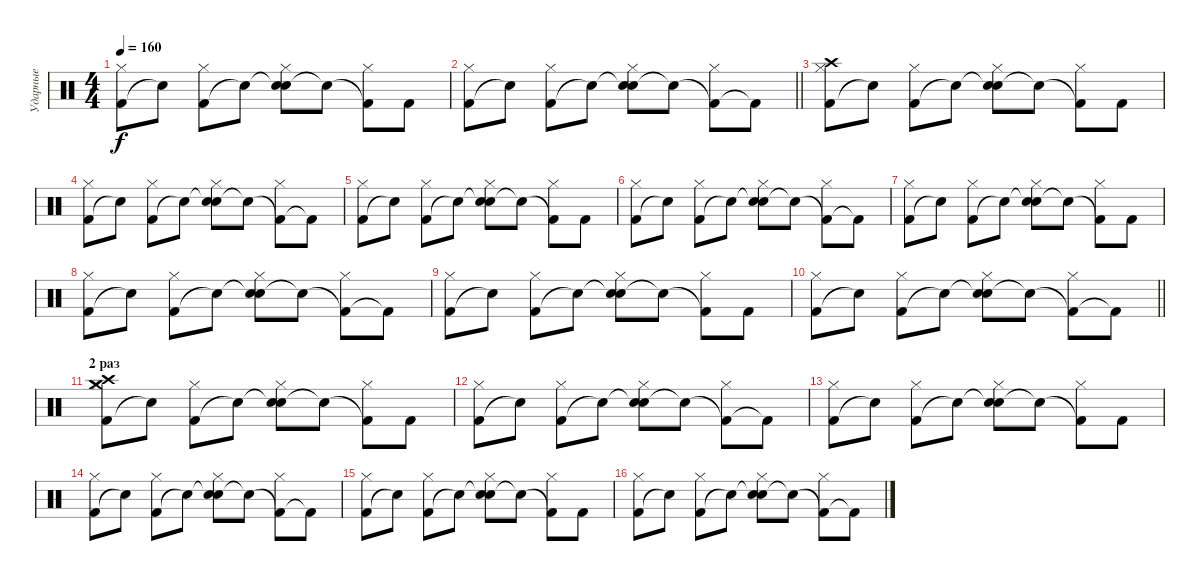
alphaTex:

\track ("Ударные" "Ударные") {instrument percussion}
\staff {score}
\articulation defaults
\ts (4 4)
\tempo 160
\clef neutral
\ks c
("Kick (hit) 2" "Hi-Hat (closed)").8{dy f} "Snare (hit)"{t}.8 ("Kick (hit) 2" "Hi-Hat (closed)").8 "Snare (hit)"{t}.8 ("Snare (hit)"{t} "Hi-Hat (closed)" "Snare (hit) 2").8 "Snare (hit)"{t}.8 ("Kick (hit) 2"{t} "Hi-Hat (closed)").8 "Kick (hit) 2".8 |
\barLineRight lightlight
("Kick (hit) 2" "Hi-Hat (closed)").8 "Snare (hit)"{t}.8 ("Kick (hit) 2" "Hi-Hat (closed)").8 "Snare (hit)"{t}.8 ("Snare (hit)"{t} "Hi-Hat (closed)" "Snare (hit) 2").8 "Snare (hit)"{t}.8 ("Kick (hit) 2"{t} "Hi-Hat (closed)").8 "Kick (hit) 2"{t}.8 |
("Kick (hit) 2" "Hi-Hat (closed)" "Crash high (hit)").8 "Snare (hit)"{t}.8 ("Kick (hit) 2" "Hi-Hat (closed)").8 "Snare (hit)"{t}.8 ("Snare (hit)"{t} "Hi-Hat (closed)" "Snare (hit) 2").8 "Snare (hit)"{t}.8 ("Kick (hit) 2"{t} "Hi-Hat (closed)").8 "Kick (hit) 2".8 |
("Kick (hit) 2" "Hi-Hat (closed)").8 "Snare (hit)"{t}.8 ("Kick (hit) 2" "Hi-Hat (closed)").8 "Snare (hit)"{t}.8 ("Snare (hit)"{t} "Hi-Hat (closed)" "Snare (hit) 2").8 "Snare (hit)"{t}.8 ("Kick (hit) 2"{t} "Hi-Hat (closed)").8 "Kick (hit) 2"{t}.8 |
("Kick (hit) 2" "Hi-Hat (closed)").8 "Snare (hit)"{t}.8 ("Kick (hit) 2" "Hi-Hat (closed)").8 "Snare (hit)"{t}.8 ("Snare (hit)"{t} "Hi-Hat (closed)" "Snare (hit) 2").8 "Snare (hit)"{t}.8 ("Kick (hit) 2"{t} "Hi-Hat (closed)").8 "Kick (hit) 2".8 |
("Kick (hit) 2" "Hi-Hat (closed)").8 "Snare (hit)"{t}.8 ("Kick (hit) 2" "Hi-Hat (closed)").8 "Snare (hit)"{t}.8 ("Snare (hit)"{t} "Hi-Hat (closed)" "Snare (hit) 2").8 "Snare (hit)"{t}.8 ("Kick (hit) 2"{t} "Hi-Hat (closed)").8 "Kick (hit) 2"{t}.8 |
("Kick (hit) 2" "Hi-Hat (closed)").8 "Snare (hit)"{t}.8 ("Kick (hit) 2" "Hi-Hat (closed)").8 "Snare (hit)"{t}.8 ("Snare (hit)"{t} "Hi-Hat (closed)" "Snare (hit) 2").8 "Snare (hit)"{t}.8 ("Kick (hit) 2"{t} "Hi-Hat (closed)").8 "Kick (hit) 2".8 |
("Kick (hit) 2" "Hi-Hat (closed)").8 "Snare (hit)"{t}.8 ("Kick (hit) 2" "Hi-Hat (closed)").8 "Snare (hit)"{t}.8 ("Snare (hit)"{t} "Hi-Hat (closed)" "Snare (hit) 2").8 "Snare (hit)"{t}.8 ("Kick (hit) 2"{t} "Hi-Hat (closed)").8 "Kick (hit) 2"{t}.8 |
("Kick (hit) 2" "Hi-Hat (closed)").8 "Snare (hit)"{t}.8 ("Kick (hit) 2" "Hi-Hat (closed)").8 "Snare (hit)"{t}.8 ("Snare (hit)"{t} "Hi-Hat (closed)" "Snare (hit) 2").8 "Snare (hit)"{t}.8 ("Kick (hit) 2"{t} "Hi-Hat (closed)").8 "Kick (hit) 2".8 |
\barLineRight lightlight
("Kick (hit) 2" "Hi-Hat (closed)").8 "Snare (hit)"{t}.8 ("Kick (hit) 2" "Hi-Hat (closed)").8 "Snare (hit)"{t}.8 ("Snare (hit)"{t} "Hi-Hat (closed)" "Snare (hit) 2").8 "Snare (hit)"{t}.8 ("Kick (hit) 2"{t} "Hi-Hat (closed)").8 "Kick (hit) 2"{t}.8 |
\section ("" "2 раз")
("Kick (hit) 2" "Hi-Hat (closed)" "Crash medium (hit)" "Crash high (hit)").8 "Snare (hit)"{t}.8 ("Kick (hit) 2" "Hi-Hat (closed)").8 "Snare (hit)"{t}.8 ("Snare (hit)"{t} "Hi-Hat (closed)" "Snare (hit) 2").8 "Snare (hit)"{t}.8 ("Kick (hit) 2"{t} "Hi-Hat (closed)").8 "Kick (hit) 2".8 |
("Kick (hit) 2" "Hi-Hat (closed)").8 "Snare (hit)"{t}.8 ("Kick (hit) 2" "Hi-Hat (closed)").8 "Snare (hit)"{t}.8 ("Snare (hit)"{t} "Hi-Hat (closed)" "Snare (hit) 2").8 "Snare (hit)"{t}.8 ("Kick (hit) 2"{t} "Hi-Hat (closed)").8 "Kick (hit) 2"{t}.8 |
("Kick (hit) 2" "Hi-Hat (closed)").8 "Snare (hit)"{t}.8 ("Kick (hit) 2" "Hi-Hat (closed)").8 "Snare (hit)"{t}.8 ("Snare (hit)"{t} "Hi-Hat (closed)" "Snare (hit) 2").8 "Snare (hit)"{t}.8 ("Kick (hit) 2"{t} "Hi-Hat (closed)").8 "Kick (hit) 2".8 |
("Kick (hit) 2" "Hi-Hat (closed)").8 "Snare (hit)"{t}.8 ("Kick (hit) 2" "Hi-Hat (closed)").8 "Snare (hit)"{t}.8 ("Snare (hit)"{t} "Hi-Hat (closed)" "Snare (hit) 2").8 "Snare (hit)"{t}.8 ("Kick (hit) 2"{t} "Hi-Hat (closed)").8 "Kick (hit) 2"{t}.8 |
("Kick (hit) 2" "Hi-Hat (closed)").8 "Snare (hit)"{t}.8 ("Kick (hit) 2" "Hi-Hat (closed)").8 "Snare (hit)"{t}.8 ("Snare (hit)"{t} "Hi-Hat (closed)" "Snare (hit) 2").8 "Snare (hit)"{t}.8 ("Kick (hit) 2"{t} "Hi-Hat (closed)").8 "Kick (hit) 2".8 |
("Kick (hit) 2" "Hi-Hat (closed)").8 "Snare (hit)"{t}.8 ("Kick (hit) 2" "Hi-Hat (closed)").8 "Snare (hit)"{t}.8 ("Snare (hit)"{t} "Hi-Hat (closed)" "Snare (hit) 2").8 "Snare (hit)"{t}.8 ("Kick (hit) 2"{t} "Hi-Hat (closed)").8 "Kick (hit) 2"{t}.8
